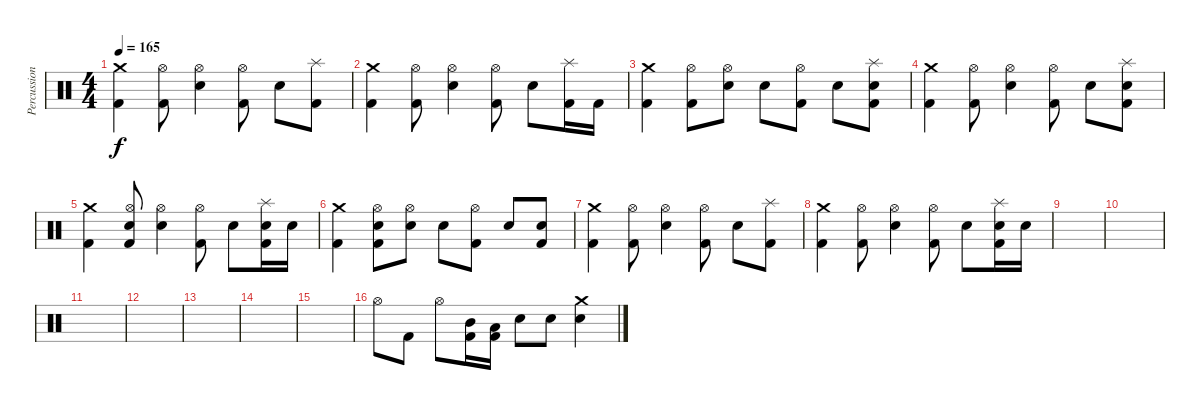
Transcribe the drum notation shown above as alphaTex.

\track ("Percussion" "Percussion") {instrument percussion}
\staff {score}
\articulation defaults
\ts (4 4)
\tempo 165
\clef neutral
\ks c
("Crash medium (hit)" "Kick (hit) 2").4{dy f} ("Hi-Hat (open)" "Kick (hit) 2").8 ("Hi-Hat (open)" "Electric Snare (hit)").4 ("Hi-Hat (open)" "Kick (hit) 2").8 "Electric Snare (hit)".8 ("Splash (hit)" "Kick (hit) 2").8 |
("Crash medium (hit)" "Kick (hit) 2").4 ("Hi-Hat (open)" "Kick (hit) 2").8 ("Hi-Hat (open)" "Electric Snare (hit)").4 ("Hi-Hat (open)" "Kick (hit) 2").8 "Electric Snare (hit)".8 ("Splash (hit)" "Kick (hit) 2").16 "Kick (hit) 2".16 |
("Crash medium (hit)" "Kick (hit) 2").4 ("Hi-Hat (open)" "Kick (hit) 2").8 ("Hi-Hat (open)" "Electric Snare (hit)").8 "Electric Snare (hit)".8 ("Hi-Hat (open)" "Kick (hit) 2").8 "Electric Snare (hit)".8 ("Splash (hit)" "Electric Snare (hit)" "Kick (hit) 2").8 |
("Crash medium (hit)" "Kick (hit) 2").4 ("Hi-Hat (open)" "Kick (hit) 2").8 ("Hi-Hat (open)" "Electric Snare (hit)").4 ("Hi-Hat (open)" "Kick (hit) 2").8 "Electric Snare (hit)".8 ("Splash (hit)" "Electric Snare (hit)" "Kick (hit) 2").8 |
("Crash medium (hit)" "Kick (hit) 2").4 ("Hi-Hat (open)" "Electric Snare (hit)" "Kick (hit) 2").8 ("Hi-Hat (open)" "Electric Snare (hit)").4 ("Hi-Hat (open)" "Kick (hit) 2").8 "Electric Snare (hit)".8 ("Splash (hit)" "Electric Snare (hit)" "Kick (hit) 2").16 "Electric Snare (hit)".16 |
("Crash medium (hit)" "Kick (hit) 2").4 ("Hi-Hat (open)" "Electric Snare (hit)" "Kick (hit) 2").8 ("Hi-Hat (open)" "Electric Snare (hit)").8 "Electric Snare (hit)".8 ("Hi-Hat (open)" "Kick (hit) 2").8 "Electric Snare (hit)".8 ("Electric Snare (hit)" "Kick (hit) 2").8 |
("Crash medium (hit)" "Kick (hit) 2").4 ("Hi-Hat (open)" "Kick (hit) 2").8 ("Hi-Hat (open)" "Electric Snare (hit)").4 ("Hi-Hat (open)" "Kick (hit) 2").8 "Electric Snare (hit)".8 ("Splash (hit)" "Kick (hit) 2").8 |
("Crash medium (hit)" "Kick (hit) 2").4 ("Hi-Hat (open)" "Kick (hit) 2").8 ("Hi-Hat (open)" "Electric Snare (hit)").4 ("Hi-Hat (open)" "Kick (hit) 2").8 "Electric Snare (hit)".8 ("Splash (hit)" "Electric Snare (hit)" "Kick (hit) 2").16 "Electric Snare (hit)".16 |
|
|
|
|
|
|
|
"Hi-Hat (open)".8 "Kick (hit) 2".8 "Hi-Hat (open)".8 ("Mid Tom (hit)" "Kick (hit) 2").16 ("Low Tom (hit)" "Kick (hit) 2").16 "Electric Snare (hit)".8 "Electric Snare (hit)".8 ("Crash medium (hit)" "Electric Snare (hit)").4
